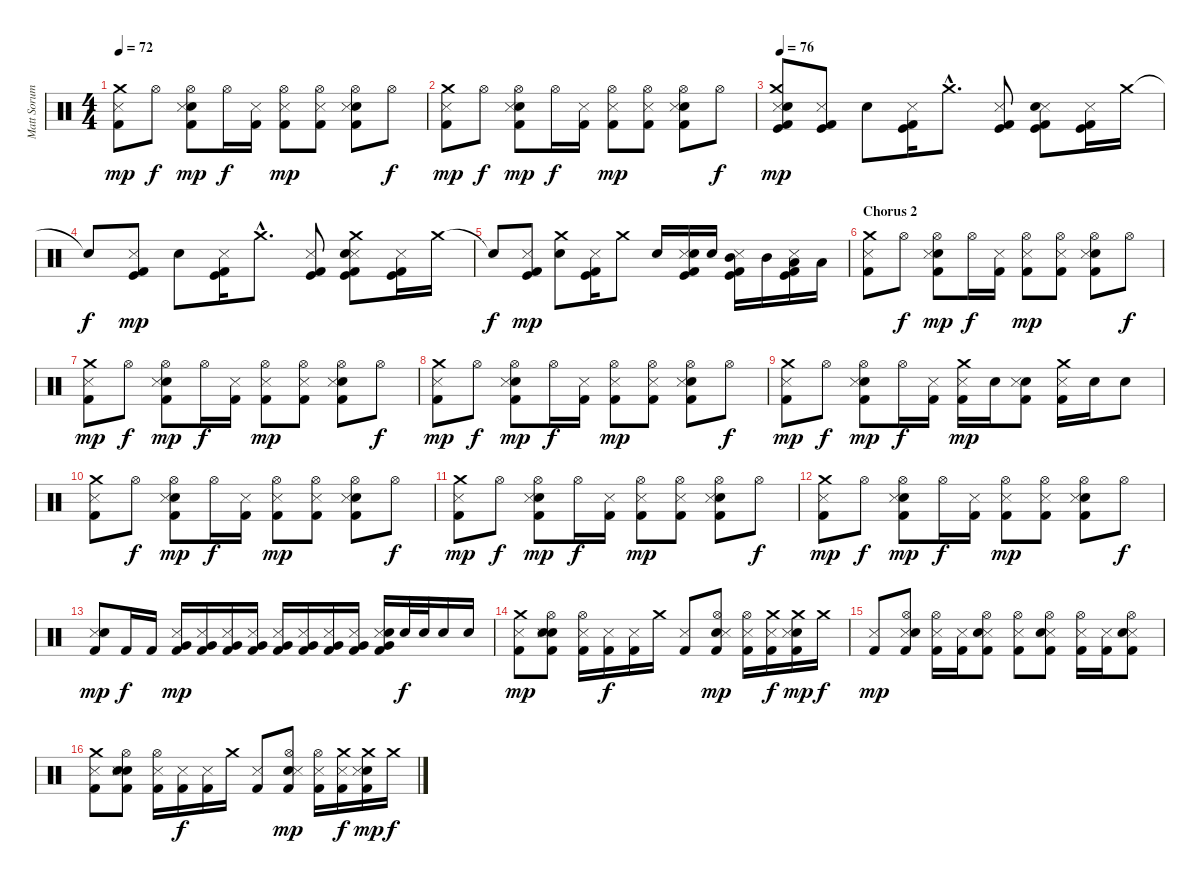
\track ("Matt Sorum" "Matt Sorum") {instrument percussion}
\staff {score}
\articulation defaults
\ts (4 4)
\tempo 72
\clef neutral
\ks c
("Metronome (hit)" "Kick (hit) 2" "Crash medium (hit)").8{dy mp} "Hi-Hat (open)".8{dy f} ("Snare (hit) 2" "Metronome (hit)" "Kick (hit) 2" "Hi-Hat (open)").8{dy mp} "Hi-Hat (open)".16{dy f} ("Metronome (hit)" "Kick (hit) 2").16 ("Metronome (hit)" "Kick (hit) 2" "Hi-Hat (open)").8{dy mp} ("Metronome (hit)" "Kick (hit) 2" "Hi-Hat (open)").8 ("Snare (hit) 2" "Metronome (hit)" "Kick (hit) 2" "Hi-Hat (open)").8 "Hi-Hat (open)".8{dy f} |
("Metronome (hit)" "Kick (hit) 2" "Crash medium (hit)").8{dy mp} "Hi-Hat (open)".8{dy f} ("Snare (hit) 2" "Metronome (hit)" "Kick (hit) 2" "Hi-Hat (open)").8{dy mp} "Hi-Hat (open)".16{dy f} ("Metronome (hit)" "Kick (hit) 2").16 ("Metronome (hit)" "Kick (hit) 2" "Hi-Hat (open)").8{dy mp} ("Metronome (hit)" "Kick (hit) 2" "Hi-Hat (open)").8 ("Snare (hit) 2" "Metronome (hit)" "Kick (hit) 2" "Hi-Hat (open)").8 "Hi-Hat (open)".8{dy f} |
\tempo 76
("Metronome (hit)" "Kick (hit)" "Kick (hit) 2" "Snare (hit) 2" "Crash medium (hit)").8{dy mp} ("Metronome (hit)" "Kick (hit)" "Kick (hit) 2").8 "Snare (hit) 2".8 ("Metronome (hit)" "Kick (hit)" "Kick (hit) 2").16 "Crash medium (hit)"{hac}.8{d} ("Metronome (hit)" "Kick (hit)" "Kick (hit) 2").8 ("Metronome (hit)" "Kick (hit)" "Kick (hit) 2" "Snare (hit) 2").8 ("Metronome (hit)" "Kick (hit)" "Kick (hit) 2").16 "Crash medium (hit)".16 |
"Snare (hit)"{t}.8{dy f} ("Metronome (hit)" "Kick (hit)" "Kick (hit) 2").8{dy mp} "Snare (hit) 2".8 ("Metronome (hit)" "Kick (hit)" "Kick (hit) 2").16 "Crash medium (hit)"{hac}.8{d} ("Metronome (hit)" "Kick (hit)" "Kick (hit) 2").8 ("Metronome (hit)" "Kick (hit)" "Kick (hit) 2" "Snare (hit) 2" "Crash medium (hit)").8 ("Metronome (hit)" "Kick (hit)" "Kick (hit) 2").16 "Crash medium (hit)".16 |
"Snare (hit)"{t}.8{dy f} ("Metronome (hit)" "Kick (hit)" "Kick (hit) 2").8{dy mp} ("Snare (hit) 2" "Crash medium (hit)").8 ("Metronome (hit)" "Kick (hit)" "Kick (hit) 2").16 "Crash medium (hit)".8 "Snare (hit) 2".16 ("Metronome (hit)" "Kick (hit)" "Kick (hit) 2" "Snare (hit) 2").16 "Snare (hit) 2".16 ("Metronome (hit)" "Kick (hit)" "Kick (hit) 2" "Mid Tom (hit)").16 "Mid Tom (hit)".16 ("Metronome (hit)" "Kick (hit)" "Kick (hit) 2" "Low Tom (hit)").16 "Low Tom (hit)".16 |
\section ("" "Chorus 2")
("Metronome (hit)" "Kick (hit) 2" "Crash medium (hit)").8 "Hi-Hat (open)".8{dy f} ("Snare (hit) 2" "Metronome (hit)" "Kick (hit) 2" "Hi-Hat (open)").8{dy mp} "Hi-Hat (open)".16{dy f} ("Metronome (hit)" "Kick (hit) 2").16 ("Metronome (hit)" "Kick (hit) 2" "Hi-Hat (open)").8{dy mp} ("Metronome (hit)" "Kick (hit) 2" "Hi-Hat (open)").8 ("Snare (hit) 2" "Metronome (hit)" "Kick (hit) 2" "Hi-Hat (open)").8 "Hi-Hat (open)".8{dy f} |
("Metronome (hit)" "Kick (hit) 2" "Crash medium (hit)").8{dy mp} "Hi-Hat (open)".8{dy f} ("Snare (hit) 2" "Metronome (hit)" "Kick (hit) 2" "Hi-Hat (open)").8{dy mp} "Hi-Hat (open)".16{dy f} ("Metronome (hit)" "Kick (hit) 2").16 ("Metronome (hit)" "Kick (hit) 2" "Hi-Hat (open)").8{dy mp} ("Metronome (hit)" "Kick (hit) 2" "Hi-Hat (open)").8 ("Snare (hit) 2" "Metronome (hit)" "Kick (hit) 2" "Hi-Hat (open)").8 "Hi-Hat (open)".8{dy f} |
("Metronome (hit)" "Kick (hit) 2" "Crash medium (hit)").8{dy mp} "Hi-Hat (open)".8{dy f} ("Snare (hit) 2" "Metronome (hit)" "Kick (hit) 2" "Hi-Hat (open)").8{dy mp} "Hi-Hat (open)".16{dy f} ("Metronome (hit)" "Kick (hit) 2").16 ("Metronome (hit)" "Kick (hit) 2" "Hi-Hat (open)").8{dy mp} ("Metronome (hit)" "Kick (hit) 2" "Hi-Hat (open)").8 ("Snare (hit) 2" "Metronome (hit)" "Kick (hit) 2" "Hi-Hat (open)").8 "Hi-Hat (open)".8{dy f} |
("Metronome (hit)" "Kick (hit) 2" "Crash medium (hit)").8{dy mp} "Hi-Hat (open)".8{dy f} ("Snare (hit) 2" "Metronome (hit)" "Kick (hit) 2" "Hi-Hat (open)").8{dy mp} "Hi-Hat (open)".16{dy f} ("Metronome (hit)" "Kick (hit) 2").16 ("Metronome (hit)" "Kick (hit) 2" "Crash medium (hit)").16{dy mp} "Snare (hit) 2".16 ("Snare (hit) 2" "Metronome (hit)" "Kick (hit) 2").8 ("Metronome (hit)" "Kick (hit) 2" "Crash medium (hit)").16 "Snare (hit) 2".16 "Snare (hit) 2".8 |
("Metronome (hit)" "Kick (hit) 2" "Crash medium (hit)").8 "Hi-Hat (open)".8{dy f} ("Snare (hit) 2" "Metronome (hit)" "Kick (hit) 2" "Hi-Hat (open)").8{dy mp} "Hi-Hat (open)".16{dy f} ("Metronome (hit)" "Kick (hit) 2").16 ("Metronome (hit)" "Kick (hit) 2" "Hi-Hat (open)").8{dy mp} ("Metronome (hit)" "Kick (hit) 2" "Hi-Hat (open)").8 ("Snare (hit) 2" "Metronome (hit)" "Kick (hit) 2" "Hi-Hat (open)").8 "Hi-Hat (open)".8{dy f} |
("Metronome (hit)" "Kick (hit) 2" "Crash medium (hit)").8{dy mp} "Hi-Hat (open)".8{dy f} ("Snare (hit) 2" "Metronome (hit)" "Kick (hit) 2" "Hi-Hat (open)").8{dy mp} "Hi-Hat (open)".16{dy f} ("Metronome (hit)" "Kick (hit) 2").16 ("Metronome (hit)" "Kick (hit) 2" "Hi-Hat (open)").8{dy mp} ("Metronome (hit)" "Kick (hit) 2" "Hi-Hat (open)").8 ("Snare (hit) 2" "Metronome (hit)" "Kick (hit) 2" "Hi-Hat (open)").8 "Hi-Hat (open)".8{dy f} |
("Metronome (hit)" "Kick (hit) 2" "Crash medium (hit)").8{dy mp} "Hi-Hat (open)".8{dy f} ("Snare (hit) 2" "Metronome (hit)" "Kick (hit) 2" "Hi-Hat (open)").8{dy mp} "Hi-Hat (open)".16{dy f} ("Metronome (hit)" "Kick (hit) 2").16 ("Metronome (hit)" "Kick (hit) 2" "Hi-Hat (open)").8{dy mp} ("Metronome (hit)" "Kick (hit) 2" "Hi-Hat (open)").8 ("Snare (hit) 2" "Metronome (hit)" "Kick (hit) 2" "Hi-Hat (open)").8 "Hi-Hat (open)".8{dy f} |
("Metronome (hit)" "Kick (hit) 2" "Snare (hit) 2").8{dy mp} "Kick (hit) 2".16{dy f} "Kick (hit) 2".16 ("Metronome (hit)" "Kick (hit) 2" "Very Low Tom (hit)").16{dy mp} ("Metronome (hit)" "Kick (hit) 2" "Very Low Tom (hit)").16 ("Metronome (hit)" "Kick (hit) 2" "Very Low Tom (hit)").16 ("Metronome (hit)" "Kick (hit) 2" "Very Low Tom (hit)").16 ("Metronome (hit)" "Kick (hit) 2" "Very Low Tom (hit)").16 ("Metronome (hit)" "Kick (hit) 2" "Very Low Tom (hit)").16 ("Metronome (hit)" "Kick (hit) 2" "Very Low Tom (hit)").16 ("Metronome (hit)" "Kick (hit) 2" "Very Low Tom (hit)").16 ("Metronome (hit)" "Kick (hit) 2" "Very Low Tom (hit)" "Snare (hit) 2").16 "Snare (hit) 2".32{dy f} "Snare (hit) 2".32 "Snare (hit) 2".16 "Snare (hit) 2".16 |
("Metronome (hit)" "Kick (hit) 2" "Crash medium (hit)").8{dy mp} ("Snare (hit) 2" "Metronome (hit)" "Kick (hit) 2" "Snare (hit) 2" "Hi-Hat (open)").8 ("Metronome (hit)" "Kick (hit) 2" "Hi-Hat (open)").16 ("Metronome (hit)" "Kick (hit) 2").16{dy f} ("Metronome (hit)" "Kick (hit) 2").16 "Crash medium (hit)".16 ("Metronome (hit)" "Kick (hit) 2").8 ("Snare (hit) 2" "Metronome (hit)" "Kick (hit) 2" "Hi-Hat (open)").8{dy mp} ("Metronome (hit)" "Kick (hit) 2" "Hi-Hat (open)").16 ("Metronome (hit)" "Kick (hit) 2" "Crash medium (hit)").16{dy f} ("Snare (hit) 2" "Metronome (hit)" "Kick (hit) 2" "Crash medium (hit)").16{dy mp} "Crash medium (hit)".16{dy f} |
("Metronome (hit)" "Kick (hit) 2").8{dy mp} ("Hi-Hat (open)" "Metronome (hit)" "Kick (hit) 2" "Snare (hit) 2").8 ("Hi-Hat (open)" "Metronome (hit)" "Kick (hit) 2").16 ("Metronome (hit)" "Kick (hit) 2").16 ("Hi-Hat (open)" "Metronome (hit)" "Kick (hit) 2" "Snare (hit) 2").8 ("Hi-Hat (open)" "Metronome (hit)" "Kick (hit) 2").8 ("Hi-Hat (open)" "Metronome (hit)" "Kick (hit) 2" "Snare (hit) 2").8 ("Hi-Hat (open)" "Metronome (hit)" "Kick (hit) 2").16 ("Metronome (hit)" "Kick (hit) 2").16 ("Hi-Hat (open)" "Metronome (hit)" "Kick (hit) 2" "Snare (hit) 2").8 |
("Metronome (hit)" "Kick (hit) 2" "Crash medium (hit)").8 ("Snare (hit) 2" "Metronome (hit)" "Kick (hit) 2" "Snare (hit) 2" "Hi-Hat (open)").8 ("Metronome (hit)" "Kick (hit) 2" "Hi-Hat (open)").16 ("Metronome (hit)" "Kick (hit) 2").16{dy f} ("Metronome (hit)" "Kick (hit) 2").16 "Crash medium (hit)".16 ("Metronome (hit)" "Kick (hit) 2").8 ("Snare (hit) 2" "Metronome (hit)" "Kick (hit) 2" "Hi-Hat (open)").8{dy mp} ("Metronome (hit)" "Kick (hit) 2" "Hi-Hat (open)").16 ("Metronome (hit)" "Kick (hit) 2" "Crash medium (hit)").16{dy f} ("Snare (hit) 2" "Metronome (hit)" "Kick (hit) 2" "Crash medium (hit)").16{dy mp} "Crash medium (hit)".16{dy f}
